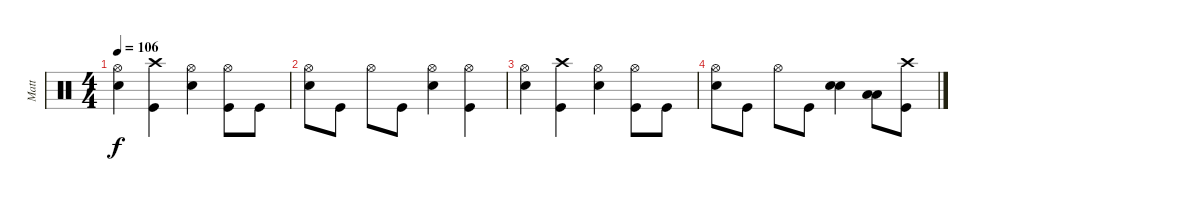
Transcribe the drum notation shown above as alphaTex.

\track ("Matt" "Matt") {instrument percussion}
\staff {score}
\articulation defaults
\ts (4 4)
\tempo 106
\clef neutral
\ks c
("Electric Snare (hit)" "Hi-Hat (open)").4{dy f} ("Crash high (hit)" "Kick (hit)").4 ("Electric Snare (hit)" "Hi-Hat (open)").4 ("Hi-Hat (open)" "Kick (hit)").8 "Kick (hit)".8 |
("Electric Snare (hit)" "Hi-Hat (open)").8 "Kick (hit)".8 "Hi-Hat (open)".8 "Kick (hit)".8 ("Electric Snare (hit)" "Hi-Hat (open)").4 ("Hi-Hat (open)" "Kick (hit)").4 |
("Electric Snare (hit)" "Hi-Hat (open)").4 ("Crash high (hit)" "Kick (hit)").4 ("Electric Snare (hit)" "Hi-Hat (open)").4 ("Hi-Hat (open)" "Kick (hit)").8 "Kick (hit)".8 |
("Electric Snare (hit)" "Hi-Hat (open)").8 "Kick (hit)".8 "Hi-Hat (open)".8 "Kick (hit)".8 ("Electric Snare (hit)" "Electric Snare (hit)").4 ("Low Floor Tom (hit)" "Low Floor Tom (hit)").8 ("Crash high (hit)" "Kick (hit)").8
